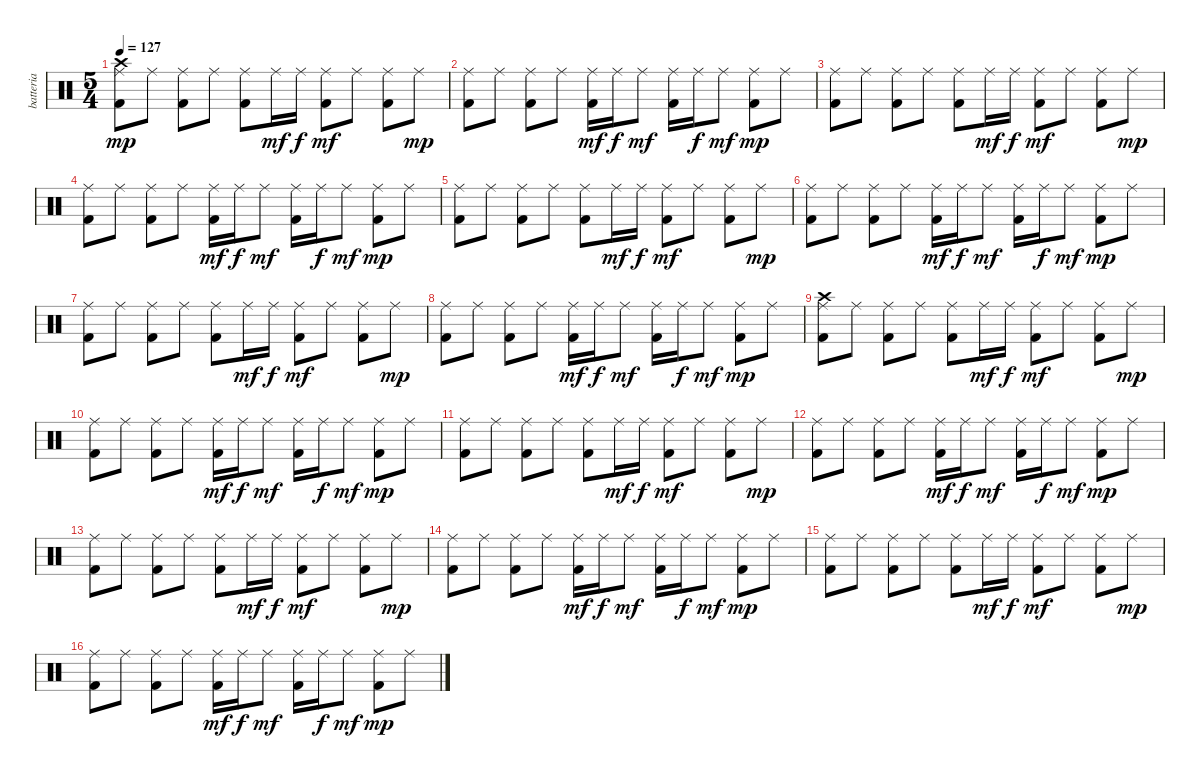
\track ("batteria" "batteria") {instrument percussion}
\staff {score}
\articulation defaults
\ts (5 4)
\tempo 127
\clef neutral
\ks c
("Crash high (hit)" "Ride (middle)" "Kick (hit) 2").8{dy mp} "Ride (middle)".8 ("Ride (middle)" "Kick (hit) 2").8 "Ride (middle)".8 ("Ride (middle)" "Kick (hit) 2").8 "Ride (middle)".16{dy mf} "Ride (middle)".16{dy f} ("Ride (middle)" "Kick (hit) 2").8{dy mf} "Ride (middle)".8 ("Ride (middle)" "Kick (hit) 2").8 "Ride (middle)".8{dy mp} |
("Ride (middle)" "Kick (hit) 2").8 "Ride (middle)".8 ("Ride (middle)" "Kick (hit) 2").8 "Ride (middle)".8 ("Ride (middle)" "Kick (hit) 2").16{dy mf} "Ride (middle)".16{dy f} "Ride (middle)".8{dy mf} ("Ride (middle)" "Kick (hit) 2").16 "Ride (middle)".16{dy f} "Ride (middle)".8{dy mf} ("Ride (middle)" "Kick (hit) 2").8{dy mp} "Ride (middle)".8 |
("Ride (middle)" "Kick (hit) 2").8 "Ride (middle)".8 ("Ride (middle)" "Kick (hit) 2").8 "Ride (middle)".8 ("Ride (middle)" "Kick (hit) 2").8 "Ride (middle)".16{dy mf} "Ride (middle)".16{dy f} ("Ride (middle)" "Kick (hit) 2").8{dy mf} "Ride (middle)".8 ("Ride (middle)" "Kick (hit) 2").8 "Ride (middle)".8{dy mp} |
("Ride (middle)" "Kick (hit) 2").8 "Ride (middle)".8 ("Ride (middle)" "Kick (hit) 2").8 "Ride (middle)".8 ("Ride (middle)" "Kick (hit) 2").16{dy mf} "Ride (middle)".16{dy f} "Ride (middle)".8{dy mf} ("Ride (middle)" "Kick (hit) 2").16 "Ride (middle)".16{dy f} "Ride (middle)".8{dy mf} ("Ride (middle)" "Kick (hit) 2").8{dy mp} "Ride (middle)".8 |
("Ride (middle)" "Kick (hit) 2").8 "Ride (middle)".8 ("Ride (middle)" "Kick (hit) 2").8 "Ride (middle)".8 ("Ride (middle)" "Kick (hit) 2").8 "Ride (middle)".16{dy mf} "Ride (middle)".16{dy f} ("Ride (middle)" "Kick (hit) 2").8{dy mf} "Ride (middle)".8 ("Ride (middle)" "Kick (hit) 2").8 "Ride (middle)".8{dy mp} |
("Ride (middle)" "Kick (hit) 2").8 "Ride (middle)".8 ("Ride (middle)" "Kick (hit) 2").8 "Ride (middle)".8 ("Ride (middle)" "Kick (hit) 2").16{dy mf} "Ride (middle)".16{dy f} "Ride (middle)".8{dy mf} ("Ride (middle)" "Kick (hit) 2").16 "Ride (middle)".16{dy f} "Ride (middle)".8{dy mf} ("Ride (middle)" "Kick (hit) 2").8{dy mp} "Ride (middle)".8 |
("Ride (middle)" "Kick (hit) 2").8 "Ride (middle)".8 ("Ride (middle)" "Kick (hit) 2").8 "Ride (middle)".8 ("Ride (middle)" "Kick (hit) 2").8 "Ride (middle)".16{dy mf} "Ride (middle)".16{dy f} ("Ride (middle)" "Kick (hit) 2").8{dy mf} "Ride (middle)".8 ("Ride (middle)" "Kick (hit) 2").8 "Ride (middle)".8{dy mp} |
("Ride (middle)" "Kick (hit) 2").8 "Ride (middle)".8 ("Ride (middle)" "Kick (hit) 2").8 "Ride (middle)".8 ("Ride (middle)" "Kick (hit) 2").16{dy mf} "Ride (middle)".16{dy f} "Ride (middle)".8{dy mf} ("Ride (middle)" "Kick (hit) 2").16 "Ride (middle)".16{dy f} "Ride (middle)".8{dy mf} ("Ride (middle)" "Kick (hit) 2").8{dy mp} "Ride (middle)".8 |
("Crash high (hit)" "Ride (middle)" "Kick (hit) 2").8 "Ride (middle)".8 ("Ride (middle)" "Kick (hit) 2").8 "Ride (middle)".8 ("Ride (middle)" "Kick (hit) 2").8 "Ride (middle)".16{dy mf} "Ride (middle)".16{dy f} ("Ride (middle)" "Kick (hit) 2").8{dy mf} "Ride (middle)".8 ("Ride (middle)" "Kick (hit) 2").8 "Ride (middle)".8{dy mp} |
("Ride (middle)" "Kick (hit) 2").8 "Ride (middle)".8 ("Ride (middle)" "Kick (hit) 2").8 "Ride (middle)".8 ("Ride (middle)" "Kick (hit) 2").16{dy mf} "Ride (middle)".16{dy f} "Ride (middle)".8{dy mf} ("Ride (middle)" "Kick (hit) 2").16 "Ride (middle)".16{dy f} "Ride (middle)".8{dy mf} ("Ride (middle)" "Kick (hit) 2").8{dy mp} "Ride (middle)".8 |
("Ride (middle)" "Kick (hit) 2").8 "Ride (middle)".8 ("Ride (middle)" "Kick (hit) 2").8 "Ride (middle)".8 ("Ride (middle)" "Kick (hit) 2").8 "Ride (middle)".16{dy mf} "Ride (middle)".16{dy f} ("Ride (middle)" "Kick (hit) 2").8{dy mf} "Ride (middle)".8 ("Ride (middle)" "Kick (hit) 2").8 "Ride (middle)".8{dy mp} |
("Ride (middle)" "Kick (hit) 2").8 "Ride (middle)".8 ("Ride (middle)" "Kick (hit) 2").8 "Ride (middle)".8 ("Ride (middle)" "Kick (hit) 2").16{dy mf} "Ride (middle)".16{dy f} "Ride (middle)".8{dy mf} ("Ride (middle)" "Kick (hit) 2").16 "Ride (middle)".16{dy f} "Ride (middle)".8{dy mf} ("Ride (middle)" "Kick (hit) 2").8{dy mp} "Ride (middle)".8 |
("Ride (middle)" "Kick (hit) 2").8 "Ride (middle)".8 ("Ride (middle)" "Kick (hit) 2").8 "Ride (middle)".8 ("Ride (middle)" "Kick (hit) 2").8 "Ride (middle)".16{dy mf} "Ride (middle)".16{dy f} ("Ride (middle)" "Kick (hit) 2").8{dy mf} "Ride (middle)".8 ("Ride (middle)" "Kick (hit) 2").8 "Ride (middle)".8{dy mp} |
("Ride (middle)" "Kick (hit) 2").8 "Ride (middle)".8 ("Ride (middle)" "Kick (hit) 2").8 "Ride (middle)".8 ("Ride (middle)" "Kick (hit) 2").16{dy mf} "Ride (middle)".16{dy f} "Ride (middle)".8{dy mf} ("Ride (middle)" "Kick (hit) 2").16 "Ride (middle)".16{dy f} "Ride (middle)".8{dy mf} ("Ride (middle)" "Kick (hit) 2").8{dy mp} "Ride (middle)".8 |
("Ride (middle)" "Kick (hit) 2").8 "Ride (middle)".8 ("Ride (middle)" "Kick (hit) 2").8 "Ride (middle)".8 ("Ride (middle)" "Kick (hit) 2").8 "Ride (middle)".16{dy mf} "Ride (middle)".16{dy f} ("Ride (middle)" "Kick (hit) 2").8{dy mf} "Ride (middle)".8 ("Ride (middle)" "Kick (hit) 2").8 "Ride (middle)".8{dy mp} |
("Ride (middle)" "Kick (hit) 2").8 "Ride (middle)".8 ("Ride (middle)" "Kick (hit) 2").8 "Ride (middle)".8 ("Ride (middle)" "Kick (hit) 2").16{dy mf} "Ride (middle)".16{dy f} "Ride (middle)".8{dy mf} ("Ride (middle)" "Kick (hit) 2").16 "Ride (middle)".16{dy f} "Ride (middle)".8{dy mf} ("Ride (middle)" "Kick (hit) 2").8{dy mp} "Ride (middle)".8
